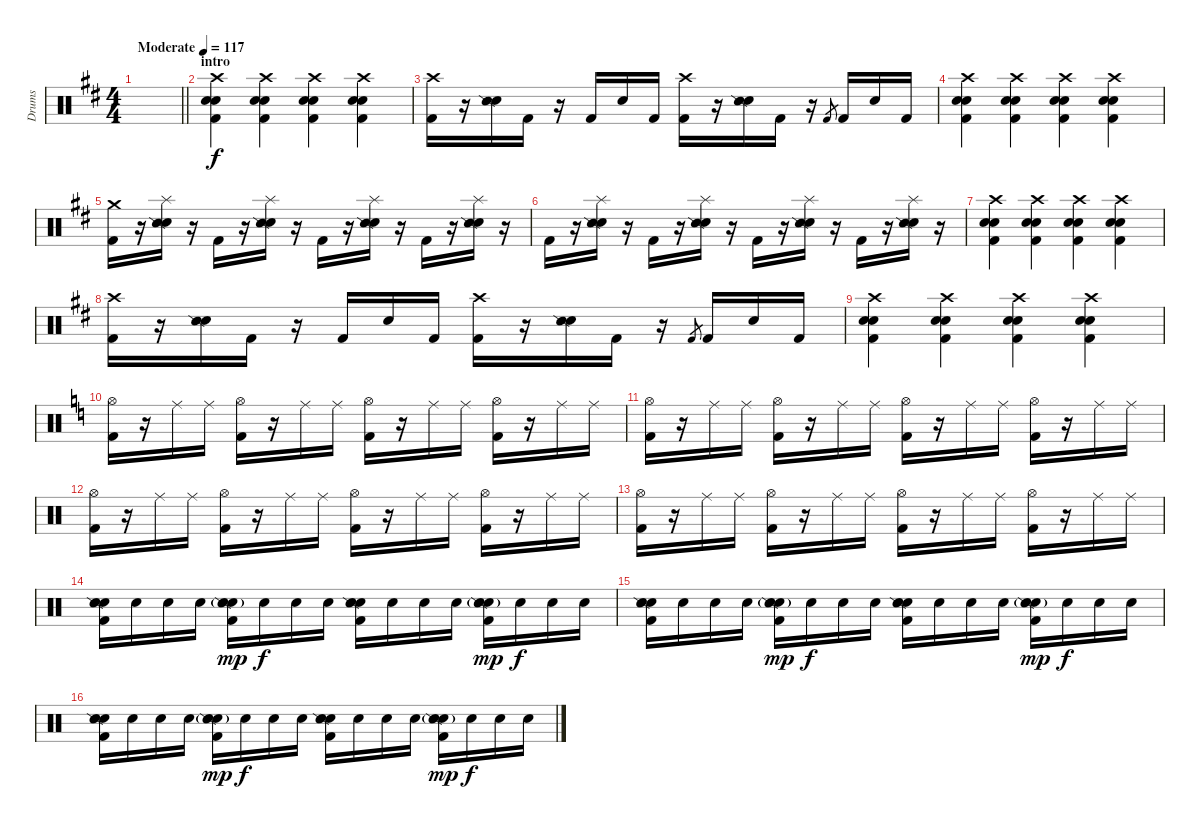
\track ("Drums" "Drums") {instrument percussion}
\staff {score}
\articulation defaults
\ts (4 4)
\tempo (117 "Moderate")
\clef neutral
\barLineRight lightlight
\ks d
|
\section ("" "intro")
("Crash high (hit)" "Snare (hit) 2" "Electric Snare (hit)" "Kick (hit) 2").4 ("Crash high (hit)" "Snare (hit) 2" "Electric Snare (hit)" "Kick (hit) 2").4 ("Crash high (hit)" "Snare (hit) 2" "Electric Snare (hit)" "Kick (hit) 2").4 ("Crash high (hit)" "Snare (hit) 2" "Electric Snare (hit)" "Kick (hit) 2").4 |
("Crash high (hit)" "Kick (hit) 2").16 r.16 ("Electric Snare (hit)" "Snare (side stick) 2").16 "Kick (hit) 2".16 r.16 "Kick (hit) 2".16 "Electric Snare (hit)".16 "Kick (hit) 2".16 ("Crash high (hit)" "Kick (hit) 2").16 r.16 ("Electric Snare (hit)" "Snare (side stick) 2").16 "Kick (hit) 2".16 r.16 "Kick (hit) 2".8{gr} "Kick (hit) 2".16 "Electric Snare (hit)".16 "Kick (hit) 2".16 |
("Crash high (hit)" "Snare (hit) 2" "Electric Snare (hit)" "Kick (hit) 2").4 ("Crash high (hit)" "Snare (hit) 2" "Electric Snare (hit)" "Kick (hit) 2").4 ("Crash high (hit)" "Snare (hit) 2" "Electric Snare (hit)" "Kick (hit) 2").4 ("Crash high (hit)" "Snare (hit) 2" "Electric Snare (hit)" "Kick (hit) 2").4 |
("Crash medium (hit)" "Kick (hit) 2").16 r.16 ("Splash (hit)" "Electric Snare (hit)" "Snare (side stick) 2").16 r.16 "Kick (hit) 2".16 r.16 ("Splash (hit)" "Electric Snare (hit)" "Snare (side stick) 2").16 r.16 "Kick (hit) 2".16 r.16 ("Splash (hit)" "Electric Snare (hit)" "Snare (side stick) 2").16 r.16 "Kick (hit) 2".16 r.16 ("Splash (hit)" "Electric Snare (hit)" "Snare (side stick) 2").16 r.16 |
"Kick (hit) 2".16 r.16 ("Splash (hit)" "Electric Snare (hit)" "Snare (side stick) 2").16 r.16 "Kick (hit) 2".16 r.16 ("Splash (hit)" "Electric Snare (hit)" "Snare (side stick) 2").16 r.16 "Kick (hit) 2".16 r.16 ("Splash (hit)" "Electric Snare (hit)" "Snare (side stick) 2").16 r.16 "Kick (hit) 2".16 r.16 ("Splash (hit)" "Electric Snare (hit)" "Snare (side stick) 2").16 r.16 |
("Crash high (hit)" "Snare (hit) 2" "Electric Snare (hit)" "Kick (hit) 2").4 ("Crash high (hit)" "Snare (hit) 2" "Electric Snare (hit)" "Kick (hit) 2").4 ("Crash high (hit)" "Snare (hit) 2" "Electric Snare (hit)" "Kick (hit) 2").4 ("Crash high (hit)" "Snare (hit) 2" "Electric Snare (hit)" "Kick (hit) 2").4 |
("Crash high (hit)" "Kick (hit) 2").16 r.16 ("Electric Snare (hit)" "Snare (side stick) 2").16 "Kick (hit) 2".16 r.16 "Kick (hit) 2".16 "Electric Snare (hit)".16 "Kick (hit) 2".16 ("Crash high (hit)" "Kick (hit) 2").16 r.16 ("Electric Snare (hit)" "Snare (side stick) 2").16 "Kick (hit) 2".16 r.16 "Kick (hit) 2".8{gr} "Kick (hit) 2".16 "Electric Snare (hit)".16 "Kick (hit) 2".16 |
("Crash high (hit)" "Snare (hit) 2" "Electric Snare (hit)" "Kick (hit) 2").4 ("Crash high (hit)" "Snare (hit) 2" "Electric Snare (hit)" "Kick (hit) 2").4 ("Crash high (hit)" "Snare (hit) 2" "Electric Snare (hit)" "Kick (hit) 2").4 ("Crash high (hit)" "Snare (hit) 2" "Electric Snare (hit)" "Kick (hit) 2").4 |
\ks c
("Hi-Hat (open)" "Kick (hit) 2").16 r.16 "Ride (middle)".16 "Ride (middle)".16{volume 10} ("Hi-Hat (open)" "Kick (hit) 2").16 r.16 "Ride (middle)".16{volume 12} "Ride (middle)".16{volume 10} ("Hi-Hat (open)" "Kick (hit) 2").16 r.16 "Ride (middle)".16{volume 12} "Ride (middle)".16{volume 10} ("Hi-Hat (open)" "Kick (hit) 2").16 r.16 "Ride (middle)".16{volume 12} "Ride (middle)".16{volume 10} |
("Hi-Hat (open)" "Kick (hit) 2").16 r.16 "Ride (middle)".16 "Ride (middle)".16{volume 10} ("Hi-Hat (open)" "Kick (hit) 2").16 r.16 "Ride (middle)".16{volume 12} "Ride (middle)".16{volume 10} ("Hi-Hat (open)" "Kick (hit) 2").16 r.16 "Ride (middle)".16{volume 12} "Ride (middle)".16{volume 10} ("Hi-Hat (open)" "Kick (hit) 2").16 r.16 "Ride (middle)".16{volume 12} "Ride (middle)".16{volume 10} |
("Hi-Hat (open)" "Kick (hit) 2").16 r.16 "Ride (middle)".16 "Ride (middle)".16{volume 10} ("Hi-Hat (open)" "Kick (hit) 2").16 r.16 "Ride (middle)".16{volume 12} "Ride (middle)".16{volume 10} ("Hi-Hat (open)" "Kick (hit) 2").16 r.16 "Ride (middle)".16{volume 12} "Ride (middle)".16{volume 10} ("Hi-Hat (open)" "Kick (hit) 2").16 r.16 "Ride (middle)".16{volume 12} "Ride (middle)".16{volume 10} |
("Hi-Hat (open)" "Kick (hit) 2").16 r.16 "Ride (middle)".16 "Ride (middle)".16{volume 10} ("Hi-Hat (open)" "Kick (hit) 2").16 r.16 "Ride (middle)".16{volume 12} "Ride (middle)".16{volume 10} ("Hi-Hat (open)" "Kick (hit) 2").16 r.16 "Ride (middle)".16{volume 12} "Ride (middle)".16{volume 10} ("Hi-Hat (open)" "Kick (hit) 2").16 r.16 "Ride (middle)".16{volume 12} "Ride (middle)".16{volume 10} |
("Snare (hit) 2" "Electric Snare (hit)" "Snare (side stick) 2" "Kick (hit) 2").16 "Electric Snare (hit)".16 "Electric Snare (hit)".16 "Electric Snare (hit)".16 ("Snare (hit) 2" "Electric Snare (hit)" "Snare (side stick) 2"{g} "Kick (hit) 2").16{dy mp} "Electric Snare (hit)".16{dy f} "Electric Snare (hit)".16 "Electric Snare (hit)".16 ("Snare (hit) 2" "Electric Snare (hit)" "Snare (side stick) 2" "Kick (hit) 2").16 "Electric Snare (hit)".16 "Electric Snare (hit)".16 "Electric Snare (hit)".16 ("Snare (hit) 2" "Electric Snare (hit)" "Snare (side stick) 2"{g} "Kick (hit) 2").16{dy mp} "Electric Snare (hit)".16{dy f} "Electric Snare (hit)".16 "Electric Snare (hit)".16 |
("Snare (hit) 2" "Electric Snare (hit)" "Snare (side stick) 2" "Kick (hit) 2").16 "Electric Snare (hit)".16 "Electric Snare (hit)".16 "Electric Snare (hit)".16 ("Snare (hit) 2" "Electric Snare (hit)" "Snare (side stick) 2"{g} "Kick (hit) 2").16{dy mp} "Electric Snare (hit)".16{dy f} "Electric Snare (hit)".16 "Electric Snare (hit)".16 ("Snare (hit) 2" "Electric Snare (hit)" "Snare (side stick) 2" "Kick (hit) 2").16 "Electric Snare (hit)".16 "Electric Snare (hit)".16 "Electric Snare (hit)".16 ("Snare (hit) 2" "Electric Snare (hit)" "Snare (side stick) 2"{g} "Kick (hit) 2").16{dy mp} "Electric Snare (hit)".16{dy f} "Electric Snare (hit)".16 "Electric Snare (hit)".16 |
("Snare (hit) 2" "Electric Snare (hit)" "Snare (side stick) 2" "Kick (hit) 2").16 "Electric Snare (hit)".16 "Electric Snare (hit)".16 "Electric Snare (hit)".16 ("Snare (hit) 2" "Electric Snare (hit)" "Snare (side stick) 2"{g} "Kick (hit) 2").16{dy mp} "Electric Snare (hit)".16{dy f} "Electric Snare (hit)".16 "Electric Snare (hit)".16 ("Snare (hit) 2" "Electric Snare (hit)" "Snare (side stick) 2" "Kick (hit) 2").16 "Electric Snare (hit)".16 "Electric Snare (hit)".16 "Electric Snare (hit)".16 ("Snare (hit) 2" "Electric Snare (hit)" "Snare (side stick) 2"{g} "Kick (hit) 2").16{dy mp} "Electric Snare (hit)".16{dy f} "Electric Snare (hit)".16 "Electric Snare (hit)".16
